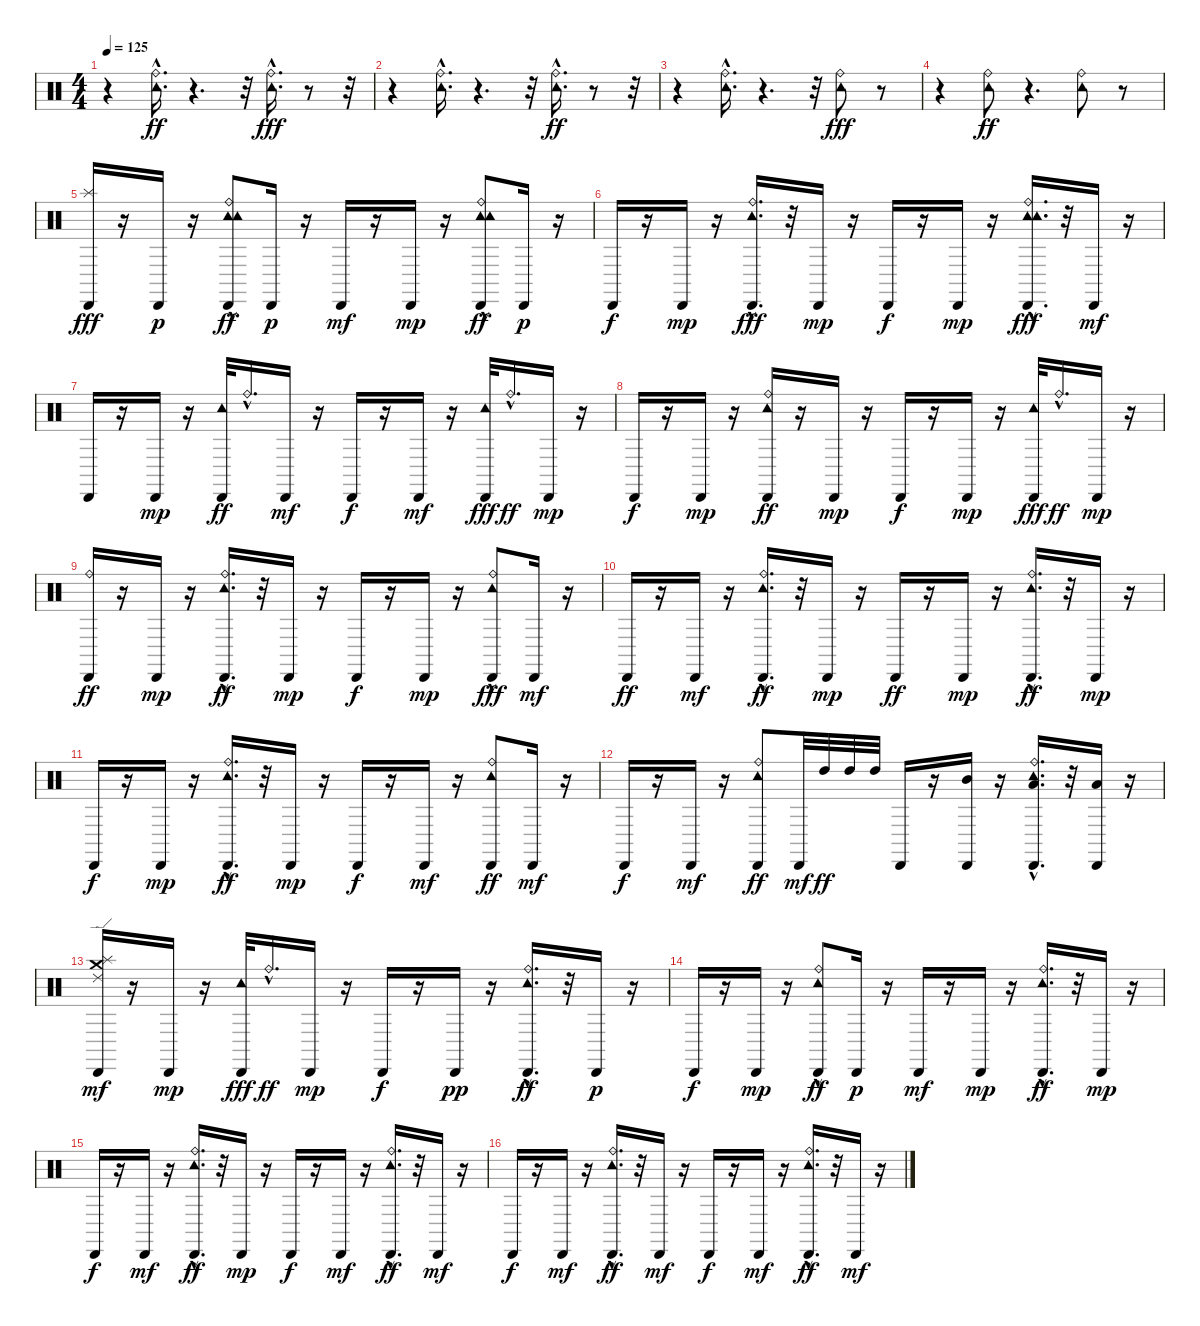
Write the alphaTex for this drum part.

\track "" {instrument percussion}
\staff {score}
\articulation defaults
\ts (4 4)
\tempo 125
\clef neutral
\ks c
r.4{dy ff} ("Tambourine (hit)" "Ride (bell)"{hac}).16{d} r.4{d} r.32 ("Tambourine (hit)" "Ride (bell)"{hac}).16{d dy fff} r.8 r.32 |
r.4 ("Tambourine (hit)" "Ride (bell)"{hac}).16{d} r.4{d} r.32 ("Tambourine (hit)" "Ride (bell)"{hac}).16{d dy ff} r.8 r.32 |
r.4 ("Tambourine (hit)" "Ride (bell)"{hac}).16{d} r.4{d} r.32 ("Tambourine (hit)" "Ride (bell)").8{dy fff} r.8 |
r.4 ("Tambourine (hit)" "Ride (bell)").8{dy ff} r.4{d} ("Tambourine (hit)" "Ride (bell)").8 r.8 |
("Splash (hit)" "Cabasa (hit)").16{dy fff} r.16 "Cabasa (hit)".16{dy p} r.16 ("Tambourine (hit)" "Cabasa (hit)" "Tambourine (hit)" "Ride (bell)"{hac}).8{dy ff} "Cabasa (hit)".16{dy p} r.16 "Cabasa (hit)".16{dy mf} r.16 "Cabasa (hit)".16{dy mp} r.16 ("Tambourine (hit)" "Cabasa (hit)" "Tambourine (hit)" "Ride (bell)"{hac}).8{dy ff} "Cabasa (hit)".16{dy p} r.16 |
"Cabasa (hit)".16{dy f} r.16 "Cabasa (hit)".16{dy mp} r.16 ("Cabasa (hit)" "Tambourine (hit)" "Ride (bell)"{hac}).16{d dy fff} r.32 "Cabasa (hit)".16{dy mp} r.16 "Cabasa (hit)".16{dy f} r.16 "Cabasa (hit)".16{dy mp} r.16 ("Cabasa (hit)" "Tambourine (hit)" "Tambourine (hit)" "Ride (bell)"{hac}).16{d dy fff} r.32 "Cabasa (hit)".16{dy mf} r.16 |
"Cabasa (hit)".16 r.16 "Cabasa (hit)".16{dy mp} r.16 ("Cabasa (hit)" "Tambourine (hit)").32{dy ff} "Ride (bell)"{hac}.16{d} "Cabasa (hit)".16{dy mf} r.16 "Cabasa (hit)".16{dy f} r.16 "Cabasa (hit)".16{dy mf} r.16 ("Cabasa (hit)" "Tambourine (hit)").32{dy fff} "Ride (bell)"{hac}.16{d dy ff} "Cabasa (hit)".16{dy mp} r.16 |
"Cabasa (hit)".16{dy f} r.16 "Cabasa (hit)".16{dy mp} r.16 ("Cabasa (hit)" "Tambourine (hit)" "Ride (bell)").16{dy ff} r.16 "Cabasa (hit)".16{dy mp} r.16 "Cabasa (hit)".16{dy f} r.16 "Cabasa (hit)".16{dy mp} r.16 ("Tambourine (hit)" "Cabasa (hit)").32{dy fff} "Ride (bell)"{hac}.16{d dy ff} "Cabasa (hit)".16{dy mp} r.16 |
("Cabasa (hit)" "Ride (bell)").16{dy ff} r.16 "Cabasa (hit)".16{dy mp} r.16 ("Cabasa (hit)" "Tambourine (hit)" "Ride (bell)"{hac}).16{d dy ff} r.32 "Cabasa (hit)".16{dy mp} r.16 "Cabasa (hit)".16{dy f} r.16 "Cabasa (hit)".16{dy mp} r.16 ("Cabasa (hit)" "Tambourine (hit)" "Ride (bell)"{hac}).8{dy fff} "Cabasa (hit)".16{dy mf} r.16 |
"Cabasa (hit)".16{dy ff} r.16 "Cabasa (hit)".16{dy mf} r.16 ("Cabasa (hit)" "Tambourine (hit)" "Ride (bell)"{hac}).16{d dy ff} r.32 "Cabasa (hit)".16{dy mp} r.16 "Cabasa (hit)".16{dy ff} r.16 "Cabasa (hit)".16{dy mp} r.16 ("Cabasa (hit)" "Tambourine (hit)" "Ride (bell)"{hac}).16{d dy ff} r.32 "Cabasa (hit)".16{dy mp} r.16 |
"Cabasa (hit)".16{dy f} r.16 "Cabasa (hit)".16{dy mp} r.16 ("Cabasa (hit)" "Tambourine (hit)" "Ride (bell)"{hac}).16{d dy ff} r.32 "Cabasa (hit)".16{dy mp} r.16 "Cabasa (hit)".16{dy f} r.16 "Cabasa (hit)".16{dy mf} r.16 ("Cabasa (hit)" "Tambourine (hit)" "Ride (bell)").8{dy ff} "Cabasa (hit)".16{dy mf} r.16 |
"Cabasa (hit)".16{dy f} r.16 "Cabasa (hit)".16{dy mf} r.16 ("Cabasa (hit)" "Tambourine (hit)" "Ride (bell)").8{dy ff} "Cabasa (hit)".32{dy mf} "High Tom (hit)".32{dy ff} "High Tom (hit)".32 "High Tom (hit)".32 "Cabasa (hit)".16 r.16 ("Cabasa (hit)" "Mid Tom (hit)").16 r.16 ("Ride (bell)"{hac} "Cabasa (hit)" "Tambourine (hit)" "Low Tom (hit)").16{d} r.32 ("Cabasa (hit)" "Low Tom (hit)").16 r.16 |
("Splash (hit)" "Crash medium (hit)" "Ride (edge) 2" "Cabasa (hit)").16{dy mf} r.16 "Cabasa (hit)".16{dy mp} r.16 ("Tambourine (hit)" "Cabasa (hit)").32{dy fff} "Ride (bell)"{hac}.16{d dy ff} "Cabasa (hit)".16{dy mp} r.16 "Cabasa (hit)".16{dy f} r.16 "Cabasa (hit)".16{dy pp} r.16 ("Cabasa (hit)" "Tambourine (hit)" "Ride (bell)"{hac}).16{d dy ff} r.32 "Cabasa (hit)".16{dy p} r.16 |
"Cabasa (hit)".16{dy f} r.16 "Cabasa (hit)".16{dy mp} r.16 ("Cabasa (hit)" "Tambourine (hit)" "Ride (bell)"{hac}).8{dy ff} "Cabasa (hit)".16{dy p} r.16 "Cabasa (hit)".16{dy mf} r.16 "Cabasa (hit)".16{dy mp} r.16 ("Tambourine (hit)" "Cabasa (hit)" "Ride (bell)"{hac}).16{d dy ff} r.32 "Cabasa (hit)".16{dy mp} r.16 |
"Cabasa (hit)".16{dy f} r.16 "Cabasa (hit)".16{dy mf} r.16 ("Cabasa (hit)" "Tambourine (hit)" "Ride (bell)"{hac}).16{d dy ff} r.32 "Cabasa (hit)".16{dy mp} r.16 "Cabasa (hit)".16{dy f} r.16 "Cabasa (hit)".16{dy mf} r.16 ("Tambourine (hit)" "Cabasa (hit)" "Ride (bell)"{hac}).16{d dy ff} r.32 "Cabasa (hit)".16{dy mf} r.16 |
"Cabasa (hit)".16{dy f} r.16 "Cabasa (hit)".16{dy mf} r.16 ("Cabasa (hit)" "Tambourine (hit)" "Ride (bell)"{hac}).16{d dy ff} r.32 "Cabasa (hit)".16{dy mf} r.16 "Cabasa (hit)".16{dy f} r.16 "Cabasa (hit)".16{dy mf} r.16 ("Tambourine (hit)" "Cabasa (hit)" "Ride (bell)"{hac}).16{d dy ff} r.32 "Cabasa (hit)".16{dy mf} r.16
